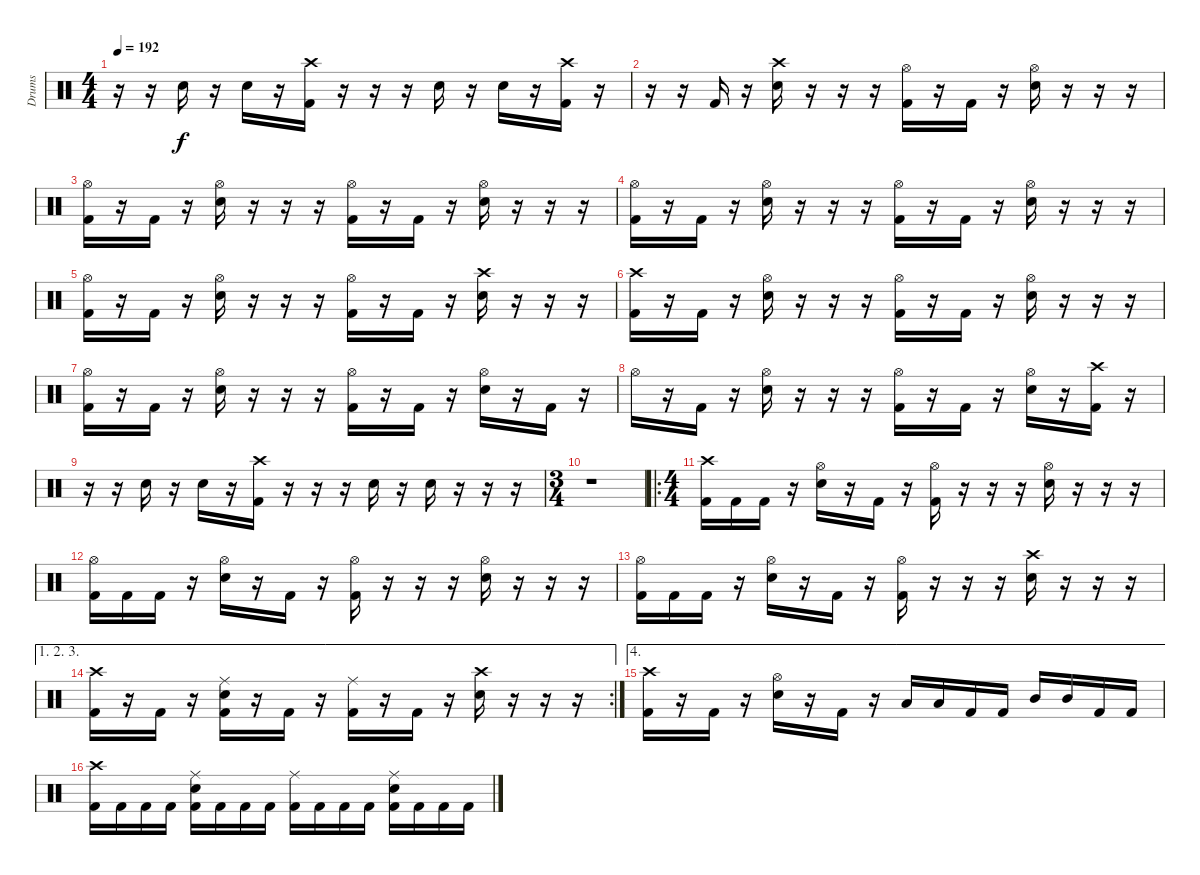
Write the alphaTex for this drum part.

\track ("Drums" "Drums") {instrument percussion}
\staff {score}
\articulation defaults
\ts (4 4)
\tempo 192
\clef neutral
\ks c
r.16{dy f} r.16 "Electric Snare (hit)".16 r.16 "Electric Snare (hit)".16 r.16 ("Crash high (hit)" "Kick (hit) 2").16 r.16 r.16 r.16 "Electric Snare (hit)".16 r.16 "Electric Snare (hit)".16 r.16 ("Crash high (hit)" "Kick (hit) 2").16 r.16 |
r.16 r.16 "Kick (hit) 2".16 r.16 ("Crash high (hit)" "Electric Snare (hit)").16 r.16 r.16 r.16 ("Hi-Hat (open)" "Kick (hit) 2").16 r.16 "Kick (hit) 2".16 r.16 ("Hi-Hat (open)" "Electric Snare (hit)").16 r.16 r.16 r.16 |
("Hi-Hat (open)" "Kick (hit) 2").16 r.16 "Kick (hit) 2".16 r.16 ("Hi-Hat (open)" "Electric Snare (hit)").16 r.16 r.16 r.16 ("Hi-Hat (open)" "Kick (hit) 2").16 r.16 "Kick (hit) 2".16 r.16 ("Hi-Hat (open)" "Electric Snare (hit)").16 r.16 r.16 r.16 |
("Hi-Hat (open)" "Kick (hit) 2").16 r.16 "Kick (hit) 2".16 r.16 ("Hi-Hat (open)" "Electric Snare (hit)").16 r.16 r.16 r.16 ("Hi-Hat (open)" "Kick (hit) 2").16 r.16 "Kick (hit) 2".16 r.16 ("Hi-Hat (open)" "Electric Snare (hit)").16 r.16 r.16 r.16 |
("Hi-Hat (open)" "Kick (hit) 2").16 r.16 "Kick (hit) 2".16 r.16 ("Hi-Hat (open)" "Electric Snare (hit)").16 r.16 r.16 r.16 ("Hi-Hat (open)" "Kick (hit) 2").16 r.16 "Kick (hit) 2".16 r.16 ("Crash high (hit)" "Electric Snare (hit)").16 r.16 r.16 r.16 |
("Crash high (hit)" "Kick (hit) 2").16 r.16 "Kick (hit) 2".16 r.16 ("Hi-Hat (open)" "Electric Snare (hit)").16 r.16 r.16 r.16 ("Hi-Hat (open)" "Kick (hit) 2").16 r.16 "Kick (hit) 2".16 r.16 ("Hi-Hat (open)" "Electric Snare (hit)").16 r.16 r.16 r.16 |
("Hi-Hat (open)" "Kick (hit) 2").16 r.16 "Kick (hit) 2".16 r.16 ("Hi-Hat (open)" "Electric Snare (hit)").16 r.16 r.16 r.16 ("Hi-Hat (open)" "Kick (hit) 2").16 r.16 "Kick (hit) 2".16 r.16 ("Hi-Hat (open)" "Electric Snare (hit)").16 r.16 "Kick (hit) 2".16 r.16 |
"Hi-Hat (open)".16 r.16 "Kick (hit) 2".16 r.16 ("Hi-Hat (open)" "Electric Snare (hit)").16 r.16 r.16 r.16 ("Hi-Hat (open)" "Kick (hit) 2").16 r.16 "Kick (hit) 2".16 r.16 ("Hi-Hat (open)" "Electric Snare (hit)").16 r.16 ("Crash high (hit)" "Kick (hit) 2").16 r.16 |
r.16 r.16 "Electric Snare (hit)".16 r.16 "Electric Snare (hit)".16 r.16 ("Crash high (hit)" "Kick (hit) 2").16 r.16 r.16 r.16 "Electric Snare (hit)".16 r.16 "Electric Snare (hit)".16 r.16 r.16 r.16 |
\ts (3 4)
r.1 |
\ro
\ts (4 4)
("Crash high (hit)" "Kick (hit) 2").16 "Kick (hit) 2".16 "Kick (hit) 2".16 r.16 ("Hi-Hat (open)" "Electric Snare (hit)").16 r.16 "Kick (hit) 2".16 r.16 ("Hi-Hat (open)" "Kick (hit) 2").16 r.16 r.16 r.16 ("Hi-Hat (open)" "Electric Snare (hit)").16 r.16 r.16 r.16 |
("Hi-Hat (open)" "Kick (hit) 2").16 "Kick (hit) 2".16 "Kick (hit) 2".16 r.16 ("Hi-Hat (open)" "Electric Snare (hit)").16 r.16 "Kick (hit) 2".16 r.16 ("Hi-Hat (open)" "Kick (hit) 2").16 r.16 r.16 r.16 ("Hi-Hat (open)" "Electric Snare (hit)").16 r.16 r.16 r.16 |
("Hi-Hat (open)" "Kick (hit) 2").16 "Kick (hit) 2".16 "Kick (hit) 2".16 r.16 ("Hi-Hat (open)" "Electric Snare (hit)").16 r.16 "Kick (hit) 2".16 r.16 ("Hi-Hat (open)" "Kick (hit) 2").16 r.16 r.16 r.16 ("Crash high (hit)" "Electric Snare (hit)").16 r.16 r.16 r.16 |
\ae (1 2 3)
\rc 2
("Crash high (hit)" "Kick (hit) 2").16 r.16 "Kick (hit) 2".16 r.16 ("Ride (middle)" "Electric Snare (hit)" "Kick (hit) 2").16 r.16 "Kick (hit) 2".16 r.16 ("Ride (middle)" "Kick (hit) 2").16 r.16 "Kick (hit) 2".16 r.16 ("Crash high (hit)" "Electric Snare (hit)").16 r.16 r.16 r.16 |
\ae 4
("Crash high (hit)" "Kick (hit) 2").16 r.16 "Kick (hit) 2".16 r.16 ("Hi-Hat (open)" "Electric Snare (hit)").16 r.16 "Kick (hit) 2".16 r.16 "Low Tom (hit)".16 "Low Tom (hit)".16 "Kick (hit) 2".16 "Kick (hit) 2".16 "Mid Tom (hit)".16 "Mid Tom (hit)".16 "Kick (hit) 2".16 "Kick (hit) 2".16 |
("Crash high (hit)" "Kick (hit) 2").16 "Kick (hit) 2".16 "Kick (hit) 2".16 "Kick (hit) 2".16 ("Ride (middle)" "Electric Snare (hit)" "Kick (hit) 2").16 "Kick (hit) 2".16 "Kick (hit) 2".16 "Kick (hit) 2".16 ("Ride (middle)" "Kick (hit) 2").16 "Kick (hit) 2".16 "Kick (hit) 2".16 "Kick (hit) 2".16 ("Ride (middle)" "Electric Snare (hit)" "Kick (hit) 2").16 "Kick (hit) 2".16 "Kick (hit) 2".16 "Kick (hit) 2".16
